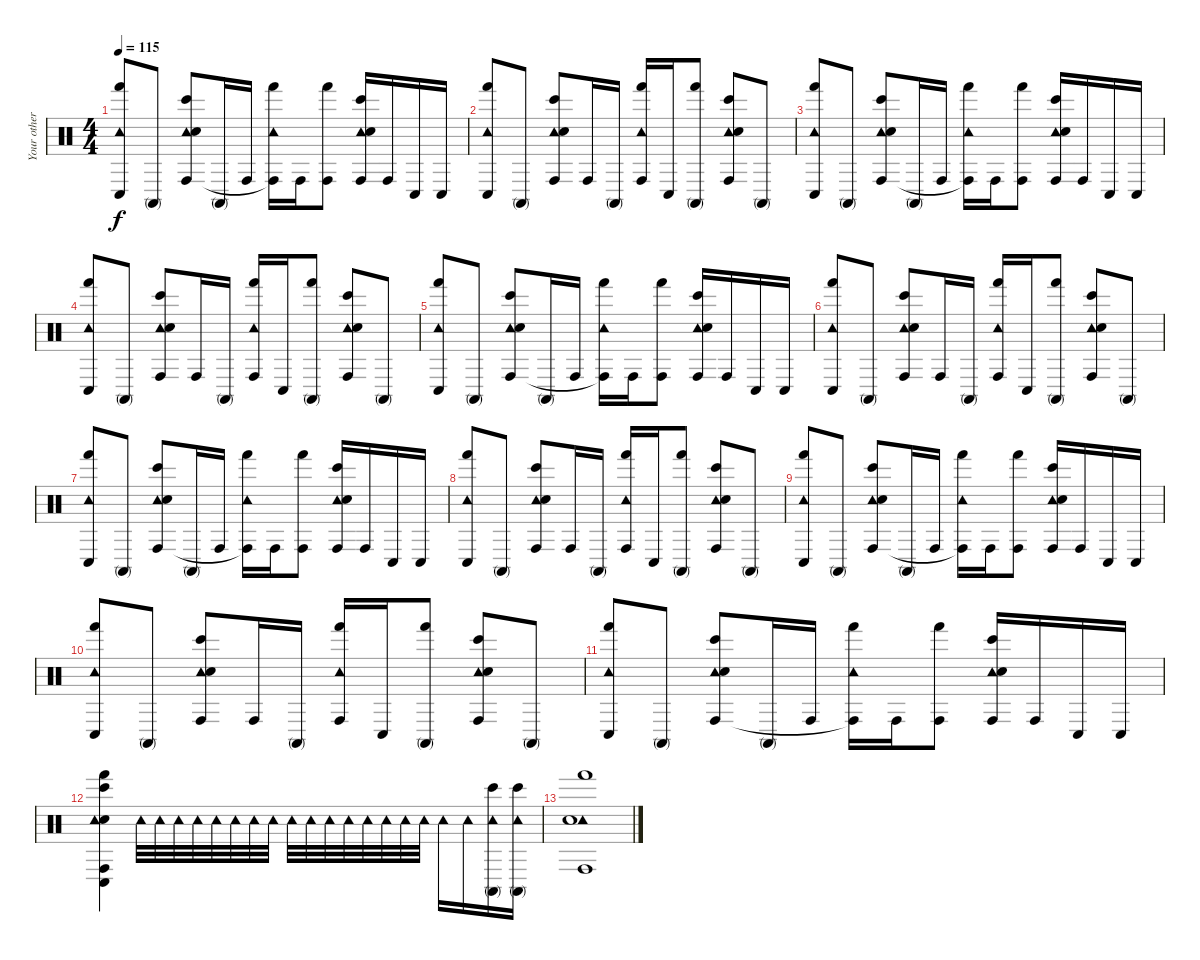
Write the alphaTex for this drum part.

\track ("Your other Friends giving you the Beat" "Your other") {instrument percussion}
\staff {score}
\articulation defaults
\ts (4 4)
\tempo 115
\clef neutral
\ks c
("Tambourine (hit)" "Conga low (hit)" "Hand (hit)").8{dy f} "Conga high (mute)".8 ("Tambourine (hit)" "Conga high (hit)" "Hand Clap (hit)" "Bongo High (hit)").8 "Conga high (mute)".16 "Conga high (hit)".16 ("Tambourine (hit)" "Conga high (hit)"{t} "Hand (hit)").16 "Conga high (hit)".16 ("Conga high (hit)" "Hand (hit)").8 ("Tambourine (hit)" "Conga high (hit)" "Hand Clap (hit)" "Bongo High (hit)").16 "Conga high (hit)".16 "Conga low (hit)".16 "Conga low (hit)".16 |
("Tambourine (hit)" "Conga low (hit)" "Hand (hit)").8 "Conga high (mute)".8 ("Tambourine (hit)" "Conga high (hit)" "Hand Clap (hit)" "Bongo High (hit)").8 "Conga high (hit)".16 "Conga high (mute)".16 ("Tambourine (hit)" "Conga high (hit)" "Hand (hit)").16 "Conga low (hit)".16 ("Conga high (mute)" "Hand (hit)").8 ("Tambourine (hit)" "Conga high (hit)" "Hand Clap (hit)" "Bongo High (hit)").8 "Conga high (mute)".8 |
("Tambourine (hit)" "Conga low (hit)" "Hand (hit)").8 "Conga high (mute)".8 ("Tambourine (hit)" "Conga high (hit)" "Hand Clap (hit)" "Bongo High (hit)").8 "Conga high (mute)".16 "Conga high (hit)".16 ("Tambourine (hit)" "Conga high (hit)"{t} "Hand (hit)").16 "Conga high (hit)".16 ("Conga high (hit)" "Hand (hit)").8 ("Tambourine (hit)" "Conga high (hit)" "Hand Clap (hit)" "Bongo High (hit)").16 "Conga high (hit)".16 "Conga low (hit)".16 "Conga low (hit)".16 |
("Tambourine (hit)" "Conga low (hit)" "Hand (hit)").8 "Conga high (mute)".8 ("Tambourine (hit)" "Conga high (hit)" "Hand Clap (hit)" "Bongo High (hit)").8 "Conga high (hit)".16 "Conga high (mute)".16 ("Tambourine (hit)" "Conga high (hit)" "Hand (hit)").16 "Conga low (hit)".16 ("Conga high (mute)" "Hand (hit)").8 ("Tambourine (hit)" "Conga high (hit)" "Hand Clap (hit)" "Bongo High (hit)").8 "Conga high (mute)".8 |
("Tambourine (hit)" "Conga low (hit)" "Hand (hit)").8 "Conga high (mute)".8 ("Tambourine (hit)" "Conga high (hit)" "Hand Clap (hit)" "Bongo High (hit)").8 "Conga high (mute)".16 "Conga high (hit)".16 ("Tambourine (hit)" "Conga high (hit)"{t} "Hand (hit)").16 "Conga high (hit)".16 ("Conga high (hit)" "Hand (hit)").8 ("Tambourine (hit)" "Conga high (hit)" "Hand Clap (hit)" "Bongo High (hit)").16 "Conga high (hit)".16 "Conga low (hit)".16 "Conga low (hit)".16 |
("Tambourine (hit)" "Conga low (hit)" "Hand (hit)").8 "Conga high (mute)".8 ("Tambourine (hit)" "Conga high (hit)" "Hand Clap (hit)" "Bongo High (hit)").8 "Conga high (hit)".16 "Conga high (mute)".16 ("Tambourine (hit)" "Conga high (hit)" "Hand (hit)").16 "Conga low (hit)".16 ("Conga high (mute)" "Hand (hit)").8 ("Tambourine (hit)" "Conga high (hit)" "Hand Clap (hit)" "Bongo High (hit)").8 "Conga high (mute)".8 |
("Tambourine (hit)" "Conga low (hit)" "Hand (hit)").8 "Conga high (mute)".8 ("Tambourine (hit)" "Conga high (hit)" "Hand Clap (hit)" "Bongo High (hit)").8 "Conga high (mute)".16 "Conga high (hit)".16 ("Tambourine (hit)" "Conga high (hit)"{t} "Hand (hit)").16 "Conga high (hit)".16 ("Conga high (hit)" "Hand (hit)").8 ("Tambourine (hit)" "Conga high (hit)" "Hand Clap (hit)" "Bongo High (hit)").16 "Conga high (hit)".16 "Conga low (hit)".16 "Conga low (hit)".16 |
("Tambourine (hit)" "Conga low (hit)" "Hand (hit)").8 "Conga high (mute)".8 ("Tambourine (hit)" "Conga high (hit)" "Hand Clap (hit)" "Bongo High (hit)").8 "Conga high (hit)".16 "Conga high (mute)".16 ("Tambourine (hit)" "Conga high (hit)" "Hand (hit)").16 "Conga low (hit)".16 ("Conga high (mute)" "Hand (hit)").8 ("Tambourine (hit)" "Conga high (hit)" "Hand Clap (hit)" "Bongo High (hit)").8 "Conga high (mute)".8 |
("Tambourine (hit)" "Conga low (hit)" "Hand (hit)").8 "Conga high (mute)".8 ("Tambourine (hit)" "Conga high (hit)" "Hand Clap (hit)" "Bongo High (hit)").8 "Conga high (mute)".16 "Conga high (hit)".16 ("Tambourine (hit)" "Conga high (hit)"{t} "Hand (hit)").16 "Conga high (hit)".16 ("Conga high (hit)" "Hand (hit)").8 ("Tambourine (hit)" "Conga high (hit)" "Hand Clap (hit)" "Bongo High (hit)").16 "Conga high (hit)".16 "Conga low (hit)".16 "Conga low (hit)".16 |
("Tambourine (hit)" "Conga low (hit)" "Hand (hit)").8 "Conga high (mute)".8 ("Tambourine (hit)" "Conga high (hit)" "Hand Clap (hit)" "Bongo High (hit)").8 "Conga high (hit)".16 "Conga high (mute)".16 ("Tambourine (hit)" "Conga high (hit)" "Hand (hit)").16 "Conga low (hit)".16 ("Conga high (mute)" "Hand (hit)").8 ("Tambourine (hit)" "Conga high (hit)" "Hand Clap (hit)" "Bongo High (hit)").8 "Conga high (mute)".8 |
("Tambourine (hit)" "Conga low (hit)" "Hand (hit)").8 "Conga high (mute)".8 ("Tambourine (hit)" "Conga high (hit)" "Hand Clap (hit)" "Bongo High (hit)").8 "Conga high (mute)".16 "Conga high (hit)".16 ("Tambourine (hit)" "Conga high (hit)"{t} "Hand (hit)").16 "Conga high (hit)".16 ("Conga high (hit)" "Hand (hit)").8 ("Tambourine (hit)" "Conga high (hit)" "Hand Clap (hit)" "Bongo High (hit)").16 "Conga high (hit)".16 "Conga low (hit)".16 "Conga low (hit)".16 |
("Hand Clap (hit)" "Tambourine (hit)" "Conga low (hit)" "Conga high (hit)" "Hand (hit)" "Bongo High (hit)").4 "Tambourine (hit)".32 "Tambourine (hit)".32 "Tambourine (hit)".32 "Tambourine (hit)".32 "Tambourine (hit)".32 "Tambourine (hit)".32 "Tambourine (hit)".32 "Tambourine (hit)".32 "Tambourine (hit)".32 "Tambourine (hit)".32 "Tambourine (hit)".32 "Tambourine (hit)".32 "Tambourine (hit)".32 "Tambourine (hit)".32 "Tambourine (hit)".32 "Tambourine (hit)".32 "Tambourine (hit)".16 "Tambourine (hit)".16 ("Tambourine (hit)" "Conga high (mute)" "Bongo High (hit)").16 ("Tambourine (hit)" "Conga high (mute)" "Bongo High (hit)").16 |
("Tambourine (hit)" "Conga high (hit)" "Hand Clap (hit)" "Hand (hit)").1
